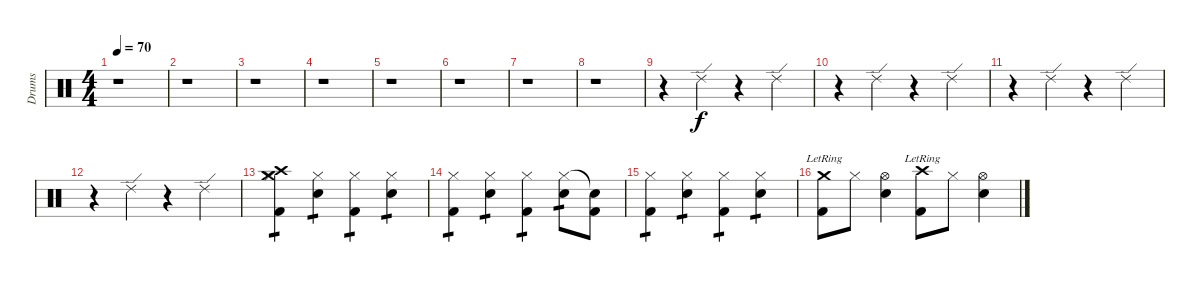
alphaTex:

\track ("Drums" "Drums") {instrument percussion}
\staff {score}
\articulation defaults
\ts (4 4)
\tempo 70
\clef neutral
\ks c
r.1{dy f} |
r.1 |
r.1 |
r.1 |
r.1 |
r.1 |
r.1 |
r.1 |
r.4 "Ride (edge) 2".4 r.4 "Ride (edge) 2".4 |
r.4 "Ride (edge) 2".4 r.4 "Ride (edge) 2".4 |
r.4 "Ride (edge) 2".4 r.4 "Ride (edge) 2".4 |
r.4 "Ride (edge) 2".4 r.4 "Ride (edge) 2".4 |
("Crash medium (hit)" "Crash high (hit)" "Hi-Hat (closed)" "Kick (hit) 2").4{tp 1} ("Hi-Hat (closed)" "Snare (hit) 2").4{tp 1} ("Hi-Hat (closed)" "Kick (hit) 2").4{tp 1} ("Hi-Hat (closed)" "Snare (hit) 2").4{tp 1} |
("Hi-Hat (closed)" "Kick (hit) 2").4{tp 1} ("Hi-Hat (closed)" "Snare (hit) 2").4{tp 1} ("Hi-Hat (closed)" "Kick (hit) 2").4{tp 1} ("Hi-Hat (closed)" "Snare (hit) 2").8{tp 1} ("Snare (hit)"{t} "Kick (hit) 2").8 |
("Hi-Hat (closed)" "Kick (hit) 2").4{tp 1} ("Hi-Hat (closed)" "Snare (hit) 2").4{tp 1} ("Hi-Hat (closed)" "Kick (hit) 2").4{tp 1} ("Hi-Hat (closed)" "Snare (hit) 2").4{tp 1} |
("Crash medium (hit)"{lr} "Kick (hit) 2").8 "Hi-Hat (closed)".8 ("Hi-Hat (open)" "Snare (hit) 2").4 ("Crash high (hit)"{lr} "Kick (hit) 2").8 "Hi-Hat (closed)".8 ("Hi-Hat (open)" "Snare (hit) 2").4
